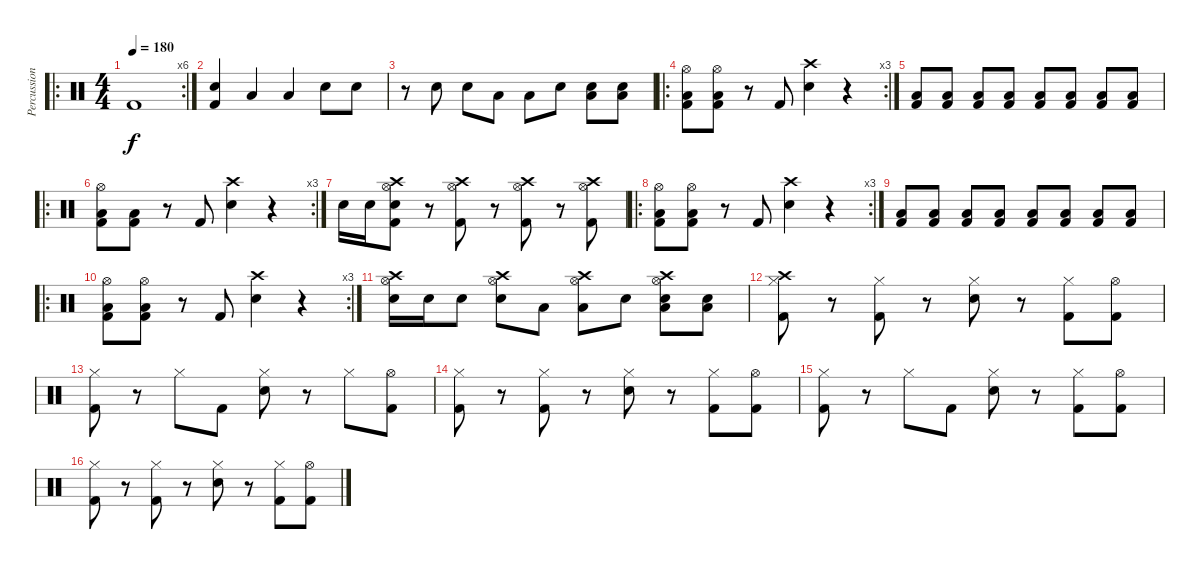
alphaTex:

\track ("Percussions" "Percussion") {instrument percussion}
\staff {score}
\articulation defaults
\ro
\rc 6
\ts (4 4)
\tempo 180
\clef neutral
\ks c "Kick (hit) 2".1{dy f}
|
("Kick (hit) 2" "Snare (hit) 2").4 "Low Floor Tom (hit)".4 "Low Floor Tom (hit)".4 "Snare (hit) 2".8 "Snare (hit) 2".8 |
r.8 "Snare (hit) 2".8 "Snare (hit) 2".8 "Low Floor Tom (hit)".8 "Low Floor Tom (hit)".8 "Snare (hit) 2".8 ("Snare (hit) 2" "Low Floor Tom (hit)").8 ("Snare (hit) 2" "Low Floor Tom (hit)").8 |
\ro
\rc 3
("Hi-Hat (open)" "Kick (hit) 2" "Low Floor Tom (hit)").8 ("Hi-Hat (open)" "Kick (hit) 2" "Low Floor Tom (hit)").8 r.8 "Kick (hit) 2".8 ("Crash high (hit)" "Snare (hit) 2").4 r.4 |
("Kick (hit) 2" "Low Floor Tom (hit)").8 ("Kick (hit) 2" "Low Floor Tom (hit)").8 ("Kick (hit) 2" "Low Floor Tom (hit)").8 ("Kick (hit) 2" "Low Floor Tom (hit)").8 ("Kick (hit) 2" "Low Floor Tom (hit)").8 ("Kick (hit) 2" "Low Floor Tom (hit)").8 ("Kick (hit) 2" "Low Floor Tom (hit)").8 ("Kick (hit) 2" "Low Floor Tom (hit)").8 |
\ro
\rc 3
("Hi-Hat (open)" "Kick (hit) 2" "Low Floor Tom (hit)").8 ("Kick (hit) 2" "Low Floor Tom (hit)").8 r.8 "Kick (hit) 2".8 ("Crash high (hit)" "Snare (hit) 2").4 r.4 |
"Snare (hit) 2".16 "Snare (hit) 2".16 ("Hi-Hat (open)" "Crash high (hit)" "Kick (hit) 2" "Snare (hit) 2").8 r.8 ("Hi-Hat (open)" "Crash high (hit)" "Kick (hit) 2").8 r.8 ("Hi-Hat (open)" "Crash high (hit)" "Kick (hit) 2").8 r.8 ("Hi-Hat (open)" "Crash high (hit)" "Kick (hit) 2").8 |
\ro
\rc 3
("Hi-Hat (open)" "Kick (hit) 2" "Low Floor Tom (hit)").8 ("Hi-Hat (open)" "Kick (hit) 2" "Low Floor Tom (hit)").8 r.8 "Kick (hit) 2".8 ("Crash high (hit)" "Snare (hit) 2").4 r.4 |
("Kick (hit) 2" "Low Floor Tom (hit)").8 ("Kick (hit) 2" "Low Floor Tom (hit)").8 ("Kick (hit) 2" "Low Floor Tom (hit)").8 ("Kick (hit) 2" "Low Floor Tom (hit)").8 ("Kick (hit) 2" "Low Floor Tom (hit)").8 ("Kick (hit) 2" "Low Floor Tom (hit)").8 ("Kick (hit) 2" "Low Floor Tom (hit)").8 ("Kick (hit) 2" "Low Floor Tom (hit)").8 |
\ro
\rc 3
("Hi-Hat (open)" "Kick (hit) 2" "Low Floor Tom (hit)").8 ("Hi-Hat (open)" "Kick (hit) 2" "Low Floor Tom (hit)").8 r.8 "Kick (hit) 2".8 ("Crash high (hit)" "Snare (hit) 2").4 r.4 |
("Snare (hit) 2" "Crash high (hit)" "Hi-Hat (open)").16 "Snare (hit) 2".16 "Snare (hit) 2".8 ("Snare (hit) 2" "Hi-Hat (open)" "Crash high (hit)").8 "Low Floor Tom (hit)".8 ("Low Floor Tom (hit)" "Hi-Hat (open)" "Crash high (hit)").8 "Snare (hit) 2".8 ("Snare (hit) 2" "Low Floor Tom (hit)" "Hi-Hat (open)" "Crash high (hit)").8 ("Snare (hit) 2" "Low Floor Tom (hit)").8 |
("Hi-Hat (closed)" "Kick (hit) 2" "Crash high (hit)").8 r.8 ("Hi-Hat (closed)" "Kick (hit) 2").8 r.8 ("Hi-Hat (closed)" "Snare (hit) 2").8 r.8 ("Hi-Hat (closed)" "Kick (hit) 2").8 ("Hi-Hat (open)" "Kick (hit) 2").8 |
("Hi-Hat (closed)" "Kick (hit) 2").8 r.8 "Hi-Hat (closed)".8 "Kick (hit) 2".8 ("Hi-Hat (closed)" "Snare (hit) 2").8 r.8 "Hi-Hat (closed)".8 ("Hi-Hat (open)" "Kick (hit) 2").8 |
("Hi-Hat (closed)" "Kick (hit) 2").8 r.8 ("Hi-Hat (closed)" "Kick (hit) 2").8 r.8 ("Hi-Hat (closed)" "Snare (hit) 2").8 r.8 ("Hi-Hat (closed)" "Kick (hit) 2").8 ("Hi-Hat (open)" "Kick (hit) 2").8 |
("Hi-Hat (closed)" "Kick (hit) 2").8 r.8 "Hi-Hat (closed)".8 "Kick (hit) 2".8 ("Hi-Hat (closed)" "Snare (hit) 2").8 r.8 ("Hi-Hat (closed)" "Kick (hit) 2").8 ("Hi-Hat (open)" "Kick (hit) 2").8 |
("Hi-Hat (closed)" "Kick (hit) 2").8 r.8 ("Hi-Hat (closed)" "Kick (hit) 2").8 r.8 ("Hi-Hat (closed)" "Snare (hit) 2").8 r.8 ("Hi-Hat (closed)" "Kick (hit) 2").8 ("Hi-Hat (open)" "Kick (hit) 2").8
